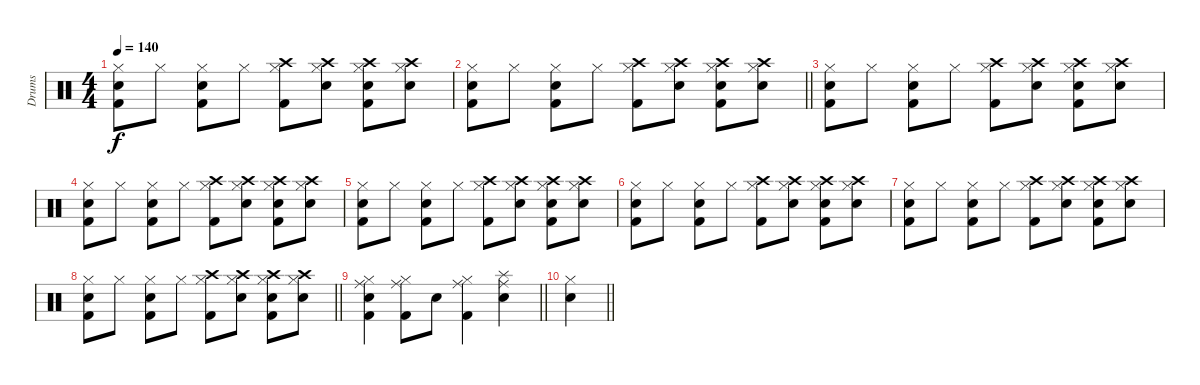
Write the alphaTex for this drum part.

\track ("Drums" "Drums") {instrument percussion}
\staff {score}
\articulation defaults
\ts (4 4)
\tempo 140
\clef neutral
\ks c
("Hi-Hat (closed)" "Electric Snare (hit)" "Kick (hit) 2").8{dy f} "Hi-Hat (closed)".8 ("Hi-Hat (closed)" "Electric Snare (hit)" "Kick (hit) 2").8 "Hi-Hat (closed)".8 ("Hi-Hat (closed)" "Crash high (hit)" "Kick (hit) 2").8 ("Hi-Hat (closed)" "Crash high (hit)" "Electric Snare (hit)").8 ("Hi-Hat (closed)" "Crash high (hit)" "Electric Snare (hit)" "Kick (hit) 2").8 ("Hi-Hat (closed)" "Crash high (hit)" "Electric Snare (hit)").8 |
\barLineRight lightlight
("Hi-Hat (closed)" "Electric Snare (hit)" "Kick (hit) 2").8 "Hi-Hat (closed)".8 ("Hi-Hat (closed)" "Electric Snare (hit)" "Kick (hit) 2").8 "Hi-Hat (closed)".8 ("Hi-Hat (closed)" "Crash high (hit)" "Kick (hit) 2").8 ("Hi-Hat (closed)" "Crash high (hit)" "Electric Snare (hit)").8 ("Hi-Hat (closed)" "Crash high (hit)" "Electric Snare (hit)" "Kick (hit) 2").8 ("Hi-Hat (closed)" "Crash high (hit)" "Electric Snare (hit)").8 |
("Hi-Hat (closed)" "Electric Snare (hit)" "Kick (hit) 2").8 "Hi-Hat (closed)".8 ("Hi-Hat (closed)" "Electric Snare (hit)" "Kick (hit) 2").8 "Hi-Hat (closed)".8 ("Hi-Hat (closed)" "Crash high (hit)" "Kick (hit) 2").8 ("Hi-Hat (closed)" "Crash high (hit)" "Electric Snare (hit)").8 ("Hi-Hat (closed)" "Crash high (hit)" "Electric Snare (hit)" "Kick (hit) 2").8 ("Hi-Hat (closed)" "Crash high (hit)" "Electric Snare (hit)").8 |
("Hi-Hat (closed)" "Electric Snare (hit)" "Kick (hit) 2").8 "Hi-Hat (closed)".8 ("Hi-Hat (closed)" "Electric Snare (hit)" "Kick (hit) 2").8 "Hi-Hat (closed)".8 ("Hi-Hat (closed)" "Crash high (hit)" "Kick (hit) 2").8 ("Hi-Hat (closed)" "Crash high (hit)" "Electric Snare (hit)").8 ("Hi-Hat (closed)" "Crash high (hit)" "Electric Snare (hit)" "Kick (hit) 2").8 ("Hi-Hat (closed)" "Crash high (hit)" "Electric Snare (hit)").8 |
("Hi-Hat (closed)" "Electric Snare (hit)" "Kick (hit) 2").8 "Hi-Hat (closed)".8 ("Hi-Hat (closed)" "Electric Snare (hit)" "Kick (hit) 2").8 "Hi-Hat (closed)".8 ("Hi-Hat (closed)" "Crash high (hit)" "Kick (hit) 2").8 ("Hi-Hat (closed)" "Crash high (hit)" "Electric Snare (hit)").8 ("Hi-Hat (closed)" "Crash high (hit)" "Electric Snare (hit)" "Kick (hit) 2").8 ("Hi-Hat (closed)" "Crash high (hit)" "Electric Snare (hit)").8 |
("Hi-Hat (closed)" "Electric Snare (hit)" "Kick (hit) 2").8 "Hi-Hat (closed)".8 ("Hi-Hat (closed)" "Electric Snare (hit)" "Kick (hit) 2").8 "Hi-Hat (closed)".8 ("Hi-Hat (closed)" "Crash high (hit)" "Kick (hit) 2").8 ("Hi-Hat (closed)" "Crash high (hit)" "Electric Snare (hit)").8 ("Hi-Hat (closed)" "Crash high (hit)" "Electric Snare (hit)" "Kick (hit) 2").8 ("Hi-Hat (closed)" "Crash high (hit)" "Electric Snare (hit)").8 |
("Hi-Hat (closed)" "Electric Snare (hit)" "Kick (hit) 2").8 "Hi-Hat (closed)".8 ("Hi-Hat (closed)" "Electric Snare (hit)" "Kick (hit) 2").8 "Hi-Hat (closed)".8 ("Hi-Hat (closed)" "Crash high (hit)" "Kick (hit) 2").8 ("Hi-Hat (closed)" "Crash high (hit)" "Electric Snare (hit)").8 ("Hi-Hat (closed)" "Crash high (hit)" "Electric Snare (hit)" "Kick (hit) 2").8 ("Hi-Hat (closed)" "Crash high (hit)" "Electric Snare (hit)").8 |
\barLineRight lightlight
("Hi-Hat (closed)" "Electric Snare (hit)" "Kick (hit) 2").8 "Hi-Hat (closed)".8 ("Hi-Hat (closed)" "Electric Snare (hit)" "Kick (hit) 2").8 "Hi-Hat (closed)".8 ("Hi-Hat (closed)" "Crash high (hit)" "Kick (hit) 2").8 ("Hi-Hat (closed)" "Crash high (hit)" "Electric Snare (hit)").8 ("Hi-Hat (closed)" "Crash high (hit)" "Electric Snare (hit)" "Kick (hit) 2").8 ("Hi-Hat (closed)" "Crash high (hit)" "Electric Snare (hit)").8 |
\barLineRight lightlight
("Hi-Hat (closed)" "Ride (middle)" "Electric Snare (hit)" "Kick (hit) 2").4 ("Hi-Hat (closed)" "Ride (middle)" "Kick (hit) 2").8 "Electric Snare (hit)".8 ("Hi-Hat (closed)" "Ride (middle)" "Kick (hit) 2").4 ("Splash (hit)" "Ride (middle)" "Electric Snare (hit)").4 |
\barLineRight lightlight
("Hi-Hat (closed)" "Electric Snare (hit)").4
